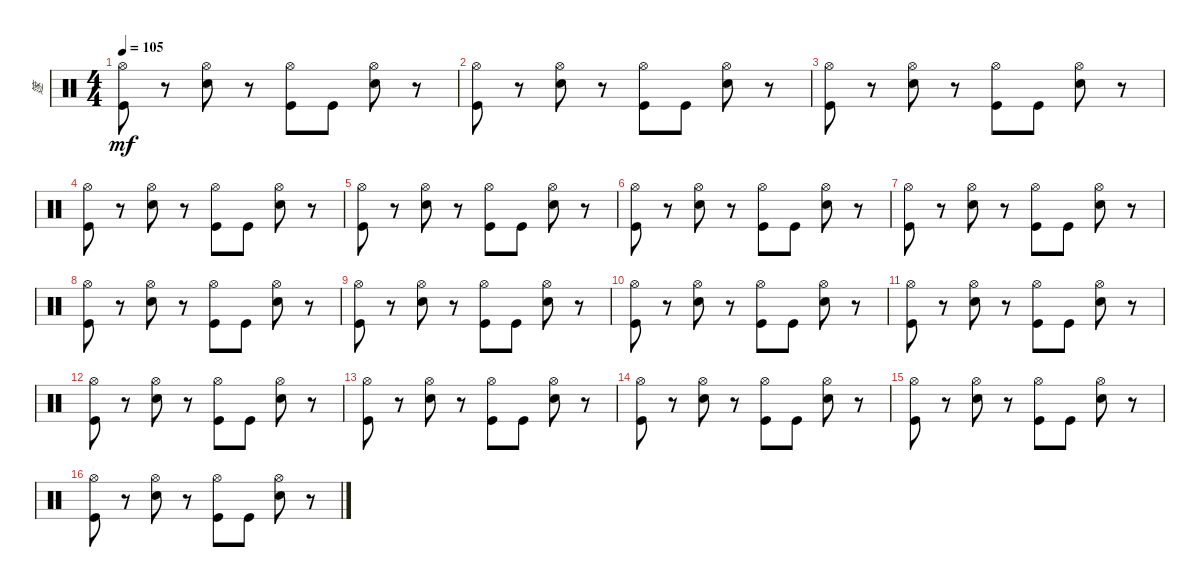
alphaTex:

\track ("篴" "篴") {instrument percussion}
\staff {score}
\articulation defaults
\ts (4 4)
\tempo 105
\clef neutral
\ks c
("Hi-Hat (open)" "Kick (hit)").8{dy mf} r.8 ("Hi-Hat (open)" "Snare (hit) 2").8 r.8 ("Hi-Hat (open)" "Kick (hit)").8 "Kick (hit)".8 ("Hi-Hat (open)" "Snare (hit) 2").8 r.8 |
("Hi-Hat (open)" "Kick (hit)").8 r.8 ("Hi-Hat (open)" "Snare (hit) 2").8 r.8 ("Hi-Hat (open)" "Kick (hit)").8 "Kick (hit)".8 ("Hi-Hat (open)" "Snare (hit) 2").8 r.8 |
("Hi-Hat (open)" "Kick (hit)").8 r.8 ("Hi-Hat (open)" "Snare (hit) 2").8 r.8 ("Hi-Hat (open)" "Kick (hit)").8 "Kick (hit)".8 ("Hi-Hat (open)" "Snare (hit) 2").8 r.8 |
("Hi-Hat (open)" "Kick (hit)").8 r.8 ("Hi-Hat (open)" "Snare (hit) 2").8 r.8 ("Hi-Hat (open)" "Kick (hit)").8 "Kick (hit)".8 ("Hi-Hat (open)" "Snare (hit) 2").8 r.8 |
("Hi-Hat (open)" "Kick (hit)").8 r.8 ("Hi-Hat (open)" "Snare (hit) 2").8 r.8 ("Hi-Hat (open)" "Kick (hit)").8 "Kick (hit)".8 ("Hi-Hat (open)" "Snare (hit) 2").8 r.8 |
("Hi-Hat (open)" "Kick (hit)").8 r.8 ("Hi-Hat (open)" "Snare (hit) 2").8 r.8 ("Hi-Hat (open)" "Kick (hit)").8 "Kick (hit)".8 ("Hi-Hat (open)" "Snare (hit) 2").8 r.8 |
("Hi-Hat (open)" "Kick (hit)").8 r.8 ("Hi-Hat (open)" "Snare (hit) 2").8 r.8 ("Hi-Hat (open)" "Kick (hit)").8 "Kick (hit)".8 ("Hi-Hat (open)" "Snare (hit) 2").8 r.8 |
("Hi-Hat (open)" "Kick (hit)").8 r.8 ("Hi-Hat (open)" "Snare (hit) 2").8 r.8 ("Hi-Hat (open)" "Kick (hit)").8 "Kick (hit)".8 ("Hi-Hat (open)" "Snare (hit) 2").8 r.8 |
("Hi-Hat (open)" "Kick (hit)").8 r.8 ("Hi-Hat (open)" "Snare (hit) 2").8 r.8 ("Hi-Hat (open)" "Kick (hit)").8 "Kick (hit)".8 ("Hi-Hat (open)" "Snare (hit) 2").8 r.8 |
("Hi-Hat (open)" "Kick (hit)").8 r.8 ("Hi-Hat (open)" "Snare (hit) 2").8 r.8 ("Hi-Hat (open)" "Kick (hit)").8 "Kick (hit)".8 ("Hi-Hat (open)" "Snare (hit) 2").8 r.8 |
("Hi-Hat (open)" "Kick (hit)").8 r.8 ("Hi-Hat (open)" "Snare (hit) 2").8 r.8 ("Hi-Hat (open)" "Kick (hit)").8 "Kick (hit)".8 ("Hi-Hat (open)" "Snare (hit) 2").8 r.8 |
("Hi-Hat (open)" "Kick (hit)").8 r.8 ("Hi-Hat (open)" "Snare (hit) 2").8 r.8 ("Hi-Hat (open)" "Kick (hit)").8 "Kick (hit)".8 ("Hi-Hat (open)" "Snare (hit) 2").8 r.8 |
("Hi-Hat (open)" "Kick (hit)").8 r.8 ("Hi-Hat (open)" "Snare (hit) 2").8 r.8 ("Hi-Hat (open)" "Kick (hit)").8 "Kick (hit)".8 ("Hi-Hat (open)" "Snare (hit) 2").8 r.8 |
("Hi-Hat (open)" "Kick (hit)").8 r.8 ("Hi-Hat (open)" "Snare (hit) 2").8 r.8 ("Hi-Hat (open)" "Kick (hit)").8 "Kick (hit)".8 ("Hi-Hat (open)" "Snare (hit) 2").8 r.8 |
("Hi-Hat (open)" "Kick (hit)").8 r.8 ("Hi-Hat (open)" "Snare (hit) 2").8 r.8 ("Hi-Hat (open)" "Kick (hit)").8 "Kick (hit)".8 ("Hi-Hat (open)" "Snare (hit) 2").8 r.8 |
("Hi-Hat (open)" "Kick (hit)").8 r.8 ("Hi-Hat (open)" "Snare (hit) 2").8 r.8 ("Hi-Hat (open)" "Kick (hit)").8 "Kick (hit)".8 ("Hi-Hat (open)" "Snare (hit) 2").8 r.8
